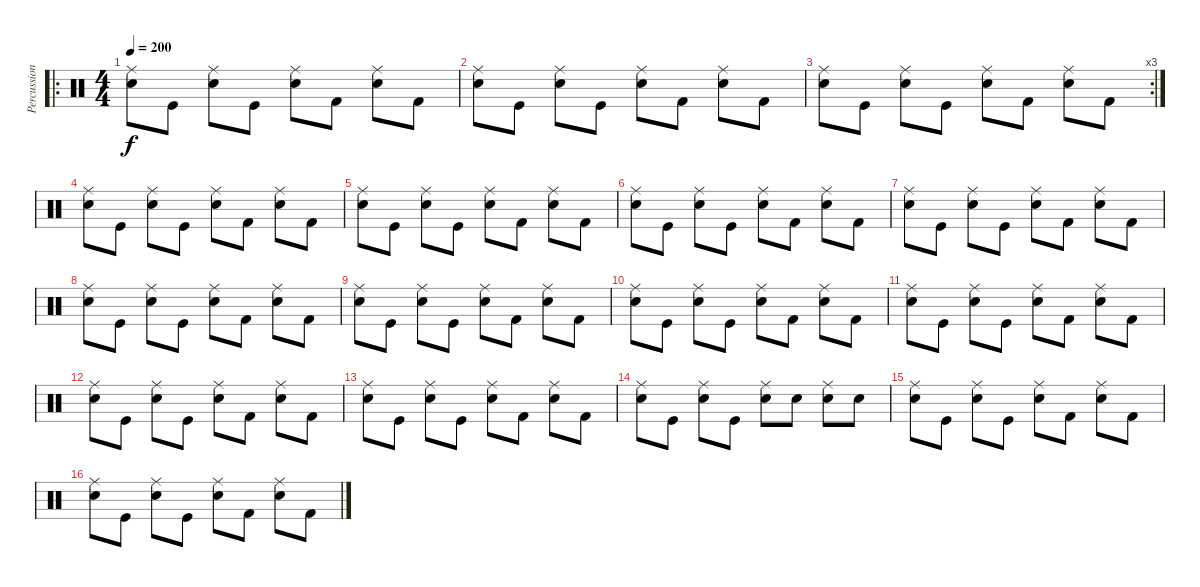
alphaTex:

\track ("Percussion" "Percussion") {instrument percussion}
\staff {score}
\articulation defaults
\ro
\ts (4 4)
\tempo 200
\clef neutral
\ks c
("Ride (middle)" "Electric Snare (hit)").8{dy f} "Kick (hit)".8 ("Ride (middle)" "Electric Snare (hit)").8 "Kick (hit)".8 ("Ride (middle)" "Electric Snare (hit)").8 "Kick (hit) 2".8 ("Ride (middle)" "Electric Snare (hit)").8 "Kick (hit) 2".8 |
("Ride (middle)" "Electric Snare (hit)").8 "Kick (hit)".8 ("Ride (middle)" "Electric Snare (hit)").8 "Kick (hit)".8 ("Ride (middle)" "Electric Snare (hit)").8 "Kick (hit) 2".8 ("Ride (middle)" "Electric Snare (hit)").8 "Kick (hit) 2".8 |
\rc 3
("Ride (middle)" "Electric Snare (hit)").8 "Kick (hit)".8 ("Ride (middle)" "Electric Snare (hit)").8 "Kick (hit)".8 ("Ride (middle)" "Electric Snare (hit)").8 "Kick (hit) 2".8 ("Ride (middle)" "Electric Snare (hit)").8 "Kick (hit) 2".8 |
("Ride (middle)" "Electric Snare (hit)").8 "Kick (hit)".8 ("Ride (middle)" "Electric Snare (hit)").8 "Kick (hit)".8 ("Ride (middle)" "Electric Snare (hit)").8 "Kick (hit) 2".8 ("Ride (middle)" "Electric Snare (hit)").8 "Kick (hit) 2".8 |
("Ride (middle)" "Electric Snare (hit)").8 "Kick (hit)".8 ("Ride (middle)" "Electric Snare (hit)").8 "Kick (hit)".8 ("Ride (middle)" "Electric Snare (hit)").8 "Kick (hit) 2".8 ("Ride (middle)" "Electric Snare (hit)").8 "Kick (hit) 2".8 |
("Ride (middle)" "Electric Snare (hit)").8 "Kick (hit)".8 ("Ride (middle)" "Electric Snare (hit)").8 "Kick (hit)".8 ("Ride (middle)" "Electric Snare (hit)").8 "Kick (hit) 2".8 ("Ride (middle)" "Electric Snare (hit)").8 "Kick (hit) 2".8 |
("Ride (middle)" "Electric Snare (hit)").8 "Kick (hit)".8 ("Ride (middle)" "Electric Snare (hit)").8 "Kick (hit)".8 ("Ride (middle)" "Electric Snare (hit)").8 "Kick (hit) 2".8 ("Ride (middle)" "Electric Snare (hit)").8 "Kick (hit) 2".8 |
("Ride (middle)" "Electric Snare (hit)").8 "Kick (hit)".8 ("Ride (middle)" "Electric Snare (hit)").8 "Kick (hit)".8 ("Ride (middle)" "Electric Snare (hit)").8 "Kick (hit) 2".8 ("Ride (middle)" "Electric Snare (hit)").8 "Kick (hit) 2".8 |
("Ride (middle)" "Electric Snare (hit)").8 "Kick (hit)".8 ("Ride (middle)" "Electric Snare (hit)").8 "Kick (hit)".8 ("Ride (middle)" "Electric Snare (hit)").8 "Kick (hit) 2".8 ("Ride (middle)" "Electric Snare (hit)").8 "Kick (hit) 2".8 |
("Ride (middle)" "Electric Snare (hit)").8 "Kick (hit)".8 ("Ride (middle)" "Electric Snare (hit)").8 "Kick (hit)".8 ("Ride (middle)" "Electric Snare (hit)").8 "Kick (hit) 2".8 ("Ride (middle)" "Electric Snare (hit)").8 "Kick (hit) 2".8 |
("Ride (middle)" "Electric Snare (hit)").8 "Kick (hit)".8 ("Ride (middle)" "Electric Snare (hit)").8 "Kick (hit)".8 ("Ride (middle)" "Electric Snare (hit)").8 "Kick (hit) 2".8 ("Ride (middle)" "Electric Snare (hit)").8 "Kick (hit) 2".8 |
("Ride (middle)" "Electric Snare (hit)").8 "Kick (hit)".8 ("Ride (middle)" "Electric Snare (hit)").8 "Kick (hit)".8 ("Ride (middle)" "Electric Snare (hit)").8 "Kick (hit) 2".8 ("Ride (middle)" "Electric Snare (hit)").8 "Kick (hit) 2".8 |
("Ride (middle)" "Electric Snare (hit)").8 "Kick (hit)".8 ("Ride (middle)" "Electric Snare (hit)").8 "Kick (hit)".8 ("Ride (middle)" "Electric Snare (hit)").8 "Kick (hit) 2".8 ("Ride (middle)" "Electric Snare (hit)").8 "Kick (hit) 2".8 |
("Ride (middle)" "Electric Snare (hit)").8 "Kick (hit)".8 ("Ride (middle)" "Electric Snare (hit)").8 "Kick (hit)".8 ("Ride (middle)" "Electric Snare (hit)").8 "Electric Snare (hit)".8 ("Ride (middle)" "Electric Snare (hit)").8 "Electric Snare (hit)".8 |
("Ride (middle)" "Electric Snare (hit)").8 "Kick (hit)".8 ("Ride (middle)" "Electric Snare (hit)").8 "Kick (hit)".8 ("Ride (middle)" "Electric Snare (hit)").8 "Kick (hit) 2".8 ("Ride (middle)" "Electric Snare (hit)").8 "Kick (hit) 2".8 |
("Ride (middle)" "Electric Snare (hit)").8 "Kick (hit)".8 ("Ride (middle)" "Electric Snare (hit)").8 "Kick (hit)".8 ("Ride (middle)" "Electric Snare (hit)").8 "Kick (hit) 2".8 ("Ride (middle)" "Electric Snare (hit)").8 "Kick (hit) 2".8
